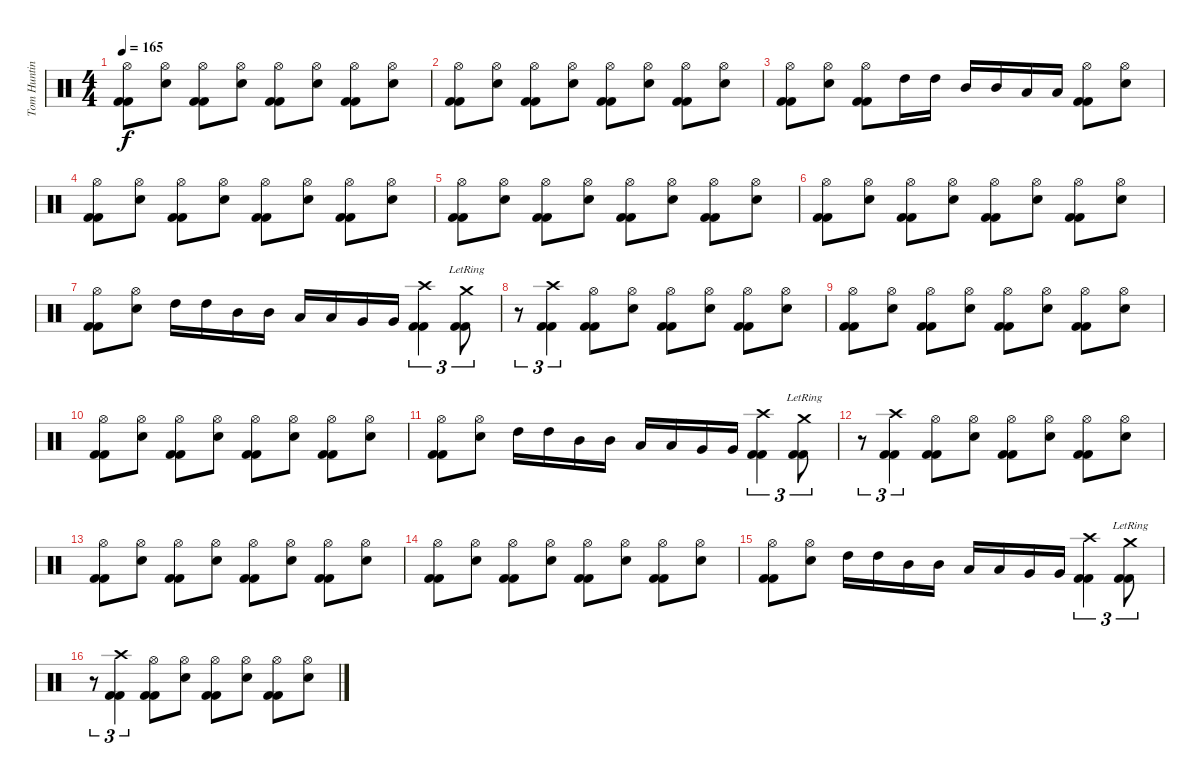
\track ("Tom Hunting" "Tom Huntin") {instrument percussion}
\staff {score}
\articulation defaults
\ts (4 4)
\tempo 165
\clef neutral
\ks c
("Kick (hit) 2" "Kick (hit) 2" "Hi-Hat (open)").8{dy f} ("Electric Snare (hit)" "Hi-Hat (open)").8 ("Kick (hit) 2" "Kick (hit) 2" "Hi-Hat (open)").8 ("Electric Snare (hit)" "Hi-Hat (open)").8 ("Kick (hit) 2" "Kick (hit) 2" "Hi-Hat (open)").8 ("Electric Snare (hit)" "Hi-Hat (open)").8 ("Kick (hit) 2" "Kick (hit) 2" "Hi-Hat (open)").8 ("Electric Snare (hit)" "Hi-Hat (open)").8 |
("Kick (hit) 2" "Kick (hit) 2" "Hi-Hat (open)").8 ("Electric Snare (hit)" "Hi-Hat (open)").8 ("Kick (hit) 2" "Kick (hit) 2" "Hi-Hat (open)").8 ("Electric Snare (hit)" "Hi-Hat (open)").8 ("Kick (hit) 2" "Kick (hit) 2" "Hi-Hat (open)").8 ("Electric Snare (hit)" "Hi-Hat (open)").8 ("Kick (hit) 2" "Kick (hit) 2" "Hi-Hat (open)").8 ("Electric Snare (hit)" "Hi-Hat (open)").8 |
("Kick (hit) 2" "Kick (hit) 2" "Hi-Hat (open)").8 ("Electric Snare (hit)" "Hi-Hat (open)").8 ("Kick (hit) 2" "Kick (hit) 2" "Hi-Hat (open)").8 "High Tom (hit)".16 "High Tom (hit)".16 "Mid Tom (hit)".16 "Mid Tom (hit)".16 "Low Tom (hit)".16 "Low Tom (hit)".16 ("Kick (hit) 2" "Kick (hit) 2" "Hi-Hat (open)").8 ("Electric Snare (hit)" "Hi-Hat (open)").8 |
("Kick (hit) 2" "Kick (hit) 2" "Hi-Hat (open)").8 ("Electric Snare (hit)" "Hi-Hat (open)").8 ("Kick (hit) 2" "Kick (hit) 2" "Hi-Hat (open)").8 ("Electric Snare (hit)" "Hi-Hat (open)").8 ("Kick (hit) 2" "Kick (hit) 2" "Hi-Hat (open)").8 ("Electric Snare (hit)" "Hi-Hat (open)").8 ("Kick (hit) 2" "Kick (hit) 2" "Hi-Hat (open)").8 ("Electric Snare (hit)" "Hi-Hat (open)").8 |
("Kick (hit) 2" "Kick (hit) 2" "Hi-Hat (open)").8 ("Electric Snare (hit)" "Hi-Hat (open)").8 ("Kick (hit) 2" "Kick (hit) 2" "Hi-Hat (open)").8 ("Electric Snare (hit)" "Hi-Hat (open)").8 ("Kick (hit) 2" "Kick (hit) 2" "Hi-Hat (open)").8 ("Electric Snare (hit)" "Hi-Hat (open)").8 ("Kick (hit) 2" "Kick (hit) 2" "Hi-Hat (open)").8 ("Electric Snare (hit)" "Hi-Hat (open)").8 |
("Kick (hit) 2" "Kick (hit) 2" "Hi-Hat (open)").8 ("Electric Snare (hit)" "Hi-Hat (open)").8 ("Kick (hit) 2" "Kick (hit) 2" "Hi-Hat (open)").8 ("Electric Snare (hit)" "Hi-Hat (open)").8 ("Kick (hit) 2" "Kick (hit) 2" "Hi-Hat (open)").8 ("Electric Snare (hit)" "Hi-Hat (open)").8 ("Kick (hit) 2" "Kick (hit) 2" "Hi-Hat (open)").8 ("Electric Snare (hit)" "Hi-Hat (open)").8 |
("Kick (hit) 2" "Kick (hit) 2" "Hi-Hat (open)").8 ("Electric Snare (hit)" "Hi-Hat (open)").8 "High Tom (hit)".16 "High Tom (hit)".16 "Mid Tom (hit)".16 "Mid Tom (hit)".16 "Low Tom (hit)".16 "Low Tom (hit)".16 "Very Low Tom (hit)".16 "Very Low Tom (hit)".16 ("Kick (hit) 2" "Kick (hit) 2" "Crash high (hit)").4{tu (3 2)} ("Kick (hit) 2" "Kick (hit) 2" "Crash medium (hit)"{lr}).8{tu (3 2)} |
r.8{tu (3 2)} ("Kick (hit) 2" "Kick (hit) 2" "Crash high (hit)").4{tu (3 2)} ("Kick (hit) 2" "Kick (hit) 2" "Hi-Hat (open)").8 ("Electric Snare (hit)" "Hi-Hat (open)").8 ("Kick (hit) 2" "Kick (hit) 2" "Hi-Hat (open)").8 ("Electric Snare (hit)" "Hi-Hat (open)").8 ("Kick (hit) 2" "Kick (hit) 2" "Hi-Hat (open)").8 ("Electric Snare (hit)" "Hi-Hat (open)").8 |
("Kick (hit) 2" "Kick (hit) 2" "Hi-Hat (open)").8 ("Electric Snare (hit)" "Hi-Hat (open)").8 ("Kick (hit) 2" "Kick (hit) 2" "Hi-Hat (open)").8 ("Electric Snare (hit)" "Hi-Hat (open)").8 ("Kick (hit) 2" "Kick (hit) 2" "Hi-Hat (open)").8 ("Electric Snare (hit)" "Hi-Hat (open)").8 ("Kick (hit) 2" "Kick (hit) 2" "Hi-Hat (open)").8 ("Electric Snare (hit)" "Hi-Hat (open)").8 |
("Kick (hit) 2" "Kick (hit) 2" "Hi-Hat (open)").8 ("Electric Snare (hit)" "Hi-Hat (open)").8 ("Kick (hit) 2" "Kick (hit) 2" "Hi-Hat (open)").8 ("Electric Snare (hit)" "Hi-Hat (open)").8 ("Kick (hit) 2" "Kick (hit) 2" "Hi-Hat (open)").8 ("Electric Snare (hit)" "Hi-Hat (open)").8 ("Kick (hit) 2" "Kick (hit) 2" "Hi-Hat (open)").8 ("Electric Snare (hit)" "Hi-Hat (open)").8 |
("Kick (hit) 2" "Kick (hit) 2" "Hi-Hat (open)").8 ("Electric Snare (hit)" "Hi-Hat (open)").8 "High Tom (hit)".16 "High Tom (hit)".16 "Mid Tom (hit)".16 "Mid Tom (hit)".16 "Low Tom (hit)".16 "Low Tom (hit)".16 "Very Low Tom (hit)".16 "Very Low Tom (hit)".16 ("Kick (hit) 2" "Kick (hit) 2" "Crash high (hit)").4{tu (3 2)} ("Kick (hit) 2" "Kick (hit) 2" "Crash medium (hit)"{lr}).8{tu (3 2)} |
r.8{tu (3 2)} ("Kick (hit) 2" "Kick (hit) 2" "Crash high (hit)").4{tu (3 2)} ("Kick (hit) 2" "Kick (hit) 2" "Hi-Hat (open)").8 ("Electric Snare (hit)" "Hi-Hat (open)").8 ("Kick (hit) 2" "Kick (hit) 2" "Hi-Hat (open)").8 ("Electric Snare (hit)" "Hi-Hat (open)").8 ("Kick (hit) 2" "Kick (hit) 2" "Hi-Hat (open)").8 ("Electric Snare (hit)" "Hi-Hat (open)").8 |
("Kick (hit) 2" "Kick (hit) 2" "Hi-Hat (open)").8 ("Electric Snare (hit)" "Hi-Hat (open)").8 ("Kick (hit) 2" "Kick (hit) 2" "Hi-Hat (open)").8 ("Electric Snare (hit)" "Hi-Hat (open)").8 ("Kick (hit) 2" "Kick (hit) 2" "Hi-Hat (open)").8 ("Electric Snare (hit)" "Hi-Hat (open)").8 ("Kick (hit) 2" "Kick (hit) 2" "Hi-Hat (open)").8 ("Electric Snare (hit)" "Hi-Hat (open)").8 |
("Kick (hit) 2" "Kick (hit) 2" "Hi-Hat (open)").8 ("Electric Snare (hit)" "Hi-Hat (open)").8 ("Kick (hit) 2" "Kick (hit) 2" "Hi-Hat (open)").8 ("Electric Snare (hit)" "Hi-Hat (open)").8 ("Kick (hit) 2" "Kick (hit) 2" "Hi-Hat (open)").8 ("Electric Snare (hit)" "Hi-Hat (open)").8 ("Kick (hit) 2" "Kick (hit) 2" "Hi-Hat (open)").8 ("Electric Snare (hit)" "Hi-Hat (open)").8 |
("Kick (hit) 2" "Kick (hit) 2" "Hi-Hat (open)").8 ("Electric Snare (hit)" "Hi-Hat (open)").8 "High Tom (hit)".16 "High Tom (hit)".16 "Mid Tom (hit)".16 "Mid Tom (hit)".16 "Low Tom (hit)".16 "Low Tom (hit)".16 "Very Low Tom (hit)".16 "Very Low Tom (hit)".16 ("Kick (hit) 2" "Kick (hit) 2" "Crash high (hit)").4{tu (3 2)} ("Kick (hit) 2" "Kick (hit) 2" "Crash medium (hit)"{lr}).8{tu (3 2)} |
r.8{tu (3 2)} ("Kick (hit) 2" "Kick (hit) 2" "Crash high (hit)").4{tu (3 2)} ("Kick (hit) 2" "Kick (hit) 2" "Hi-Hat (open)").8 ("Electric Snare (hit)" "Hi-Hat (open)").8 ("Kick (hit) 2" "Kick (hit) 2" "Hi-Hat (open)").8 ("Electric Snare (hit)" "Hi-Hat (open)").8 ("Kick (hit) 2" "Kick (hit) 2" "Hi-Hat (open)").8 ("Electric Snare (hit)" "Hi-Hat (open)").8
